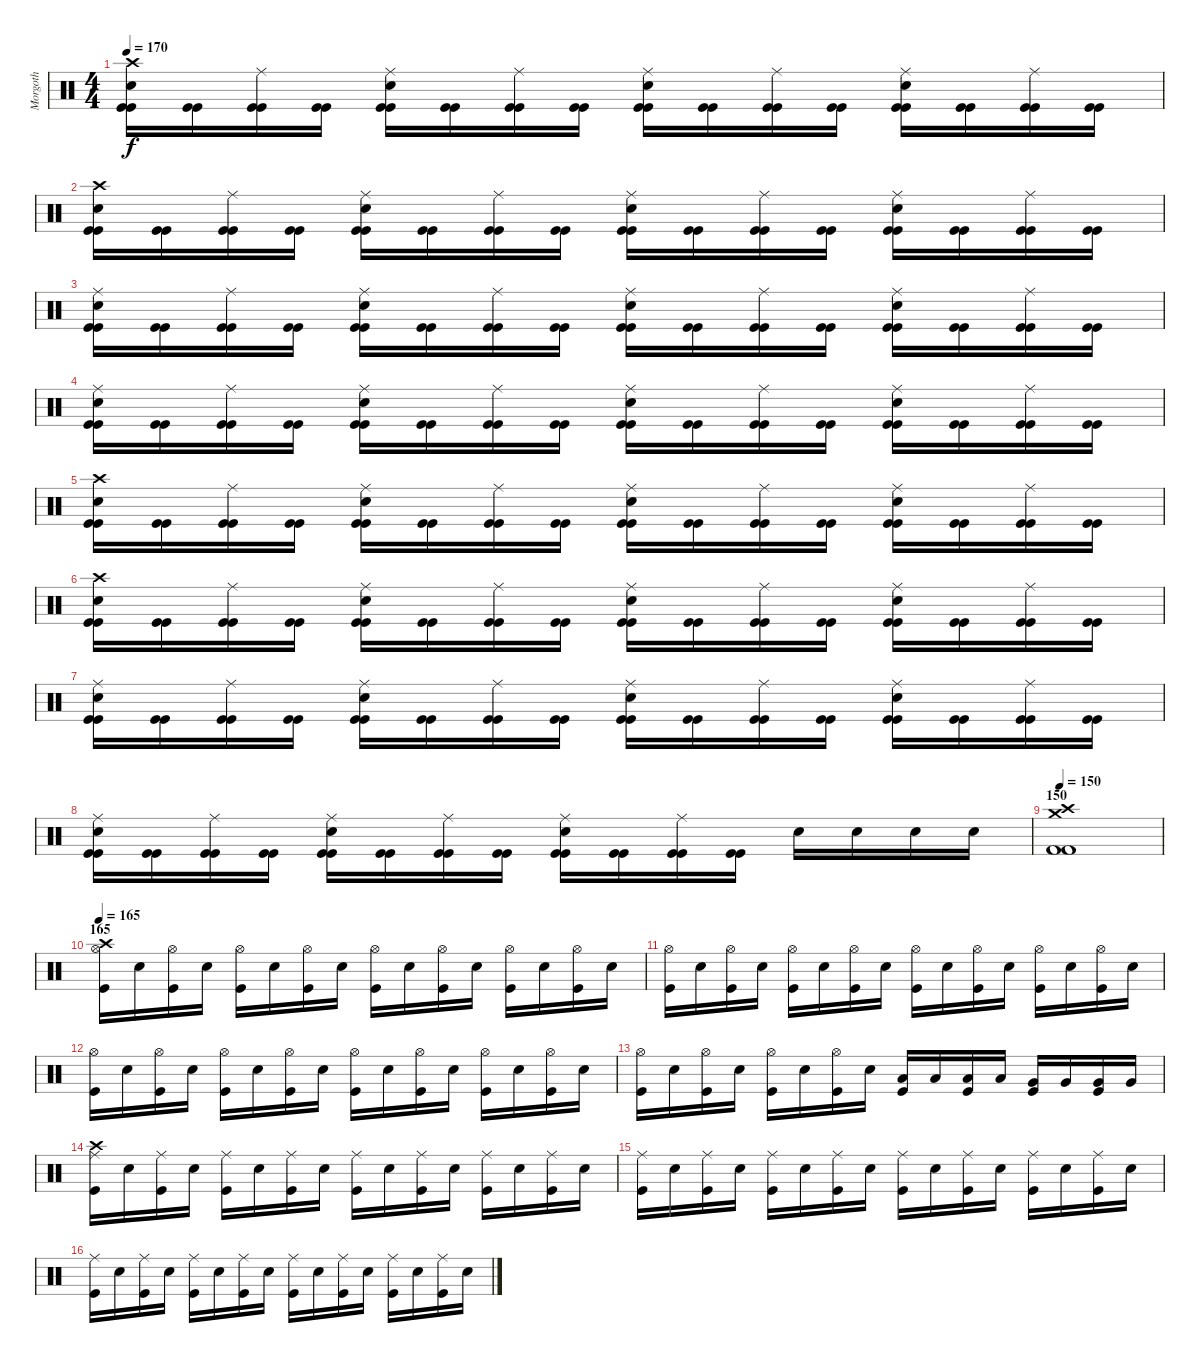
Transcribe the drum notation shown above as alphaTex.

\track ("Morgoth" "Morgoth") {instrument percussion}
\staff {score}
\articulation defaults
\ts (4 4)
\tempo 170
\clef neutral
\ks c
("Crash high (hit)" "Electric Snare (hit)" "Kick (hit)" "Kick (hit)").16{dy f} ("Kick (hit)" "Kick (hit)").16 ("Ride (middle)" "Kick (hit)" "Kick (hit)").16 ("Kick (hit)" "Kick (hit)").16 ("Ride (middle)" "Electric Snare (hit)" "Kick (hit)" "Kick (hit)").16 ("Kick (hit)" "Kick (hit)").16 ("Ride (middle)" "Kick (hit)" "Kick (hit)").16 ("Kick (hit)" "Kick (hit)").16 ("Ride (middle)" "Electric Snare (hit)" "Kick (hit)" "Kick (hit)").16 ("Kick (hit)" "Kick (hit)").16 ("Ride (middle)" "Kick (hit)" "Kick (hit)").16 ("Kick (hit)" "Kick (hit)").16 ("Ride (middle)" "Electric Snare (hit)" "Kick (hit)" "Kick (hit)").16 ("Kick (hit)" "Kick (hit)").16 ("Ride (middle)" "Kick (hit)" "Kick (hit)").16 ("Kick (hit)" "Kick (hit)").16 |
("Crash high (hit)" "Electric Snare (hit)" "Kick (hit)" "Kick (hit)").16 ("Kick (hit)" "Kick (hit)").16 ("Ride (middle)" "Kick (hit)" "Kick (hit)").16 ("Kick (hit)" "Kick (hit)").16 ("Ride (middle)" "Electric Snare (hit)" "Kick (hit)" "Kick (hit)").16 ("Kick (hit)" "Kick (hit)").16 ("Ride (middle)" "Kick (hit)" "Kick (hit)").16 ("Kick (hit)" "Kick (hit)").16 ("Ride (middle)" "Electric Snare (hit)" "Kick (hit)" "Kick (hit)").16 ("Kick (hit)" "Kick (hit)").16 ("Ride (middle)" "Kick (hit)" "Kick (hit)").16 ("Kick (hit)" "Kick (hit)").16 ("Ride (middle)" "Electric Snare (hit)" "Kick (hit)" "Kick (hit)").16 ("Kick (hit)" "Kick (hit)").16 ("Ride (middle)" "Kick (hit)" "Kick (hit)").16 ("Kick (hit)" "Kick (hit)").16 |
("Ride (middle)" "Electric Snare (hit)" "Kick (hit)" "Kick (hit)").16 ("Kick (hit)" "Kick (hit)").16 ("Ride (middle)" "Kick (hit)" "Kick (hit)").16 ("Kick (hit)" "Kick (hit)").16 ("Ride (middle)" "Electric Snare (hit)" "Kick (hit)" "Kick (hit)").16 ("Kick (hit)" "Kick (hit)").16 ("Ride (middle)" "Kick (hit)" "Kick (hit)").16 ("Kick (hit)" "Kick (hit)").16 ("Ride (middle)" "Electric Snare (hit)" "Kick (hit)" "Kick (hit)").16 ("Kick (hit)" "Kick (hit)").16 ("Ride (middle)" "Kick (hit)" "Kick (hit)").16 ("Kick (hit)" "Kick (hit)").16 ("Ride (middle)" "Electric Snare (hit)" "Kick (hit)" "Kick (hit)").16 ("Kick (hit)" "Kick (hit)").16 ("Ride (middle)" "Kick (hit)" "Kick (hit)").16 ("Kick (hit)" "Kick (hit)").16 |
("Ride (middle)" "Electric Snare (hit)" "Kick (hit)" "Kick (hit)").16 ("Kick (hit)" "Kick (hit)").16 ("Ride (middle)" "Kick (hit)" "Kick (hit)").16 ("Kick (hit)" "Kick (hit)").16 ("Ride (middle)" "Electric Snare (hit)" "Kick (hit)" "Kick (hit)").16 ("Kick (hit)" "Kick (hit)").16 ("Ride (middle)" "Kick (hit)" "Kick (hit)").16 ("Kick (hit)" "Kick (hit)").16 ("Ride (middle)" "Electric Snare (hit)" "Kick (hit)" "Kick (hit)").16 ("Kick (hit)" "Kick (hit)").16 ("Ride (middle)" "Kick (hit)" "Kick (hit)").16 ("Kick (hit)" "Kick (hit)").16 ("Ride (middle)" "Electric Snare (hit)" "Kick (hit)" "Kick (hit)").16 ("Kick (hit)" "Kick (hit)").16 ("Ride (middle)" "Kick (hit)" "Kick (hit)").16 ("Kick (hit)" "Kick (hit)").16 |
("Crash high (hit)" "Electric Snare (hit)" "Kick (hit)" "Kick (hit)").16 ("Kick (hit)" "Kick (hit)").16 ("Ride (middle)" "Kick (hit)" "Kick (hit)").16 ("Kick (hit)" "Kick (hit)").16 ("Ride (middle)" "Electric Snare (hit)" "Kick (hit)" "Kick (hit)").16 ("Kick (hit)" "Kick (hit)").16 ("Ride (middle)" "Kick (hit)" "Kick (hit)").16 ("Kick (hit)" "Kick (hit)").16 ("Ride (middle)" "Electric Snare (hit)" "Kick (hit)" "Kick (hit)").16 ("Kick (hit)" "Kick (hit)").16 ("Ride (middle)" "Kick (hit)" "Kick (hit)").16 ("Kick (hit)" "Kick (hit)").16 ("Ride (middle)" "Electric Snare (hit)" "Kick (hit)" "Kick (hit)").16 ("Kick (hit)" "Kick (hit)").16 ("Ride (middle)" "Kick (hit)" "Kick (hit)").16 ("Kick (hit)" "Kick (hit)").16 |
("Crash high (hit)" "Electric Snare (hit)" "Kick (hit)" "Kick (hit)").16 ("Kick (hit)" "Kick (hit)").16 ("Ride (middle)" "Kick (hit)" "Kick (hit)").16 ("Kick (hit)" "Kick (hit)").16 ("Ride (middle)" "Electric Snare (hit)" "Kick (hit)" "Kick (hit)").16 ("Kick (hit)" "Kick (hit)").16 ("Ride (middle)" "Kick (hit)" "Kick (hit)").16 ("Kick (hit)" "Kick (hit)").16 ("Ride (middle)" "Electric Snare (hit)" "Kick (hit)" "Kick (hit)").16 ("Kick (hit)" "Kick (hit)").16 ("Ride (middle)" "Kick (hit)" "Kick (hit)").16 ("Kick (hit)" "Kick (hit)").16 ("Ride (middle)" "Electric Snare (hit)" "Kick (hit)" "Kick (hit)").16 ("Kick (hit)" "Kick (hit)").16 ("Ride (middle)" "Kick (hit)" "Kick (hit)").16 ("Kick (hit)" "Kick (hit)").16 |
("Ride (middle)" "Electric Snare (hit)" "Kick (hit)" "Kick (hit)").16 ("Kick (hit)" "Kick (hit)").16 ("Ride (middle)" "Kick (hit)" "Kick (hit)").16 ("Kick (hit)" "Kick (hit)").16 ("Ride (middle)" "Electric Snare (hit)" "Kick (hit)" "Kick (hit)").16 ("Kick (hit)" "Kick (hit)").16 ("Ride (middle)" "Kick (hit)" "Kick (hit)").16 ("Kick (hit)" "Kick (hit)").16 ("Ride (middle)" "Electric Snare (hit)" "Kick (hit)" "Kick (hit)").16 ("Kick (hit)" "Kick (hit)").16 ("Ride (middle)" "Kick (hit)" "Kick (hit)").16 ("Kick (hit)" "Kick (hit)").16 ("Ride (middle)" "Electric Snare (hit)" "Kick (hit)" "Kick (hit)").16 ("Kick (hit)" "Kick (hit)").16 ("Ride (middle)" "Kick (hit)" "Kick (hit)").16 ("Kick (hit)" "Kick (hit)").16 |
("Ride (middle)" "Electric Snare (hit)" "Kick (hit)" "Kick (hit)").16 ("Kick (hit)" "Kick (hit)").16 ("Ride (middle)" "Kick (hit)" "Kick (hit)").16 ("Kick (hit)" "Kick (hit)").16 ("Ride (middle)" "Electric Snare (hit)" "Kick (hit)" "Kick (hit)").16 ("Kick (hit)" "Kick (hit)").16 ("Ride (middle)" "Kick (hit)" "Kick (hit)").16 ("Kick (hit)" "Kick (hit)").16 ("Ride (middle)" "Electric Snare (hit)" "Kick (hit)" "Kick (hit)").16 ("Kick (hit)" "Kick (hit)").16 ("Ride (middle)" "Kick (hit)" "Kick (hit)").16 ("Kick (hit)" "Kick (hit)").16 "Electric Snare (hit)".16 "Electric Snare (hit)".16 "Electric Snare (hit)".16 "Electric Snare (hit)".16 |
\section ("" "150")
\tempo 150
("Crash medium (hit)" "Crash high (hit)" "Kick (hit) 2" "Kick (hit) 2").1 |
\section ("" "165")
\tempo 165
("Kick (hit)" "Crash high (hit)" "Hi-Hat (open)").16 "Snare (hit) 2".16 ("Kick (hit)" "Hi-Hat (open)").16 "Snare (hit) 2".16 ("Kick (hit)" "Hi-Hat (open)").16 "Snare (hit) 2".16 ("Kick (hit)" "Hi-Hat (open)").16 "Snare (hit) 2".16 ("Kick (hit)" "Hi-Hat (open)").16 "Snare (hit) 2".16 ("Kick (hit)" "Hi-Hat (open)").16 "Snare (hit) 2".16 ("Kick (hit)" "Hi-Hat (open)").16 "Snare (hit) 2".16 ("Kick (hit)" "Hi-Hat (open)").16 "Snare (hit) 2".16 |
("Kick (hit)" "Hi-Hat (open)").16 "Snare (hit) 2".16 ("Kick (hit)" "Hi-Hat (open)").16 "Snare (hit) 2".16 ("Kick (hit)" "Hi-Hat (open)").16 "Snare (hit) 2".16 ("Kick (hit)" "Hi-Hat (open)").16 "Snare (hit) 2".16 ("Kick (hit)" "Hi-Hat (open)").16 "Snare (hit) 2".16 ("Kick (hit)" "Hi-Hat (open)").16 "Snare (hit) 2".16 ("Kick (hit)" "Hi-Hat (open)").16 "Snare (hit) 2".16 ("Kick (hit)" "Hi-Hat (open)").16 "Snare (hit) 2".16 |
("Kick (hit)" "Hi-Hat (open)").16 "Snare (hit) 2".16 ("Kick (hit)" "Hi-Hat (open)").16 "Snare (hit) 2".16 ("Kick (hit)" "Hi-Hat (open)").16 "Snare (hit) 2".16 ("Kick (hit)" "Hi-Hat (open)").16 "Snare (hit) 2".16 ("Kick (hit)" "Hi-Hat (open)").16 "Snare (hit) 2".16 ("Kick (hit)" "Hi-Hat (open)").16 "Snare (hit) 2".16 ("Kick (hit)" "Hi-Hat (open)").16 "Snare (hit) 2".16 ("Kick (hit)" "Hi-Hat (open)").16 "Snare (hit) 2".16 |
("Kick (hit)" "Hi-Hat (open)").16 "Snare (hit) 2".16 ("Kick (hit)" "Hi-Hat (open)").16 "Snare (hit) 2".16 ("Kick (hit)" "Hi-Hat (open)").16 "Snare (hit) 2".16 ("Kick (hit)" "Hi-Hat (open)").16 "Snare (hit) 2".16 ("Kick (hit)" "Low Tom (hit)").16 "Low Tom (hit)".16 ("Kick (hit)" "Low Tom (hit)").16 "Low Tom (hit)".16 ("Kick (hit)" "Very Low Tom (hit)").16 "Very Low Tom (hit)".16 ("Kick (hit)" "Very Low Tom (hit)").16 "Very Low Tom (hit)".16 |
("Kick (hit)" "Crash high (hit)" "Ride (middle)").16 "Snare (hit) 2".16 ("Kick (hit)" "Ride (middle)").16 "Snare (hit) 2".16 ("Kick (hit)" "Ride (middle)").16 "Snare (hit) 2".16 ("Kick (hit)" "Ride (middle)").16 "Snare (hit) 2".16 ("Kick (hit)" "Ride (middle)").16 "Snare (hit) 2".16 ("Kick (hit)" "Ride (middle)").16 "Snare (hit) 2".16 ("Kick (hit)" "Ride (middle)").16 "Snare (hit) 2".16 ("Kick (hit)" "Ride (middle)").16 "Snare (hit) 2".16 |
("Kick (hit)" "Ride (middle)").16 "Snare (hit) 2".16 ("Kick (hit)" "Ride (middle)").16 "Snare (hit) 2".16 ("Kick (hit)" "Ride (middle)").16 "Snare (hit) 2".16 ("Kick (hit)" "Ride (middle)").16 "Snare (hit) 2".16 ("Kick (hit)" "Ride (middle)").16 "Snare (hit) 2".16 ("Kick (hit)" "Ride (middle)").16 "Snare (hit) 2".16 ("Kick (hit)" "Ride (middle)").16 "Snare (hit) 2".16 ("Kick (hit)" "Ride (middle)").16 "Snare (hit) 2".16 |
("Kick (hit)" "Ride (middle)").16 "Snare (hit) 2".16 ("Kick (hit)" "Ride (middle)").16 "Snare (hit) 2".16 ("Kick (hit)" "Ride (middle)").16 "Snare (hit) 2".16 ("Kick (hit)" "Ride (middle)").16 "Snare (hit) 2".16 ("Kick (hit)" "Ride (middle)").16 "Snare (hit) 2".16 ("Kick (hit)" "Ride (middle)").16 "Snare (hit) 2".16 ("Kick (hit)" "Ride (middle)").16 "Snare (hit) 2".16 ("Kick (hit)" "Ride (middle)").16 "Snare (hit) 2".16
